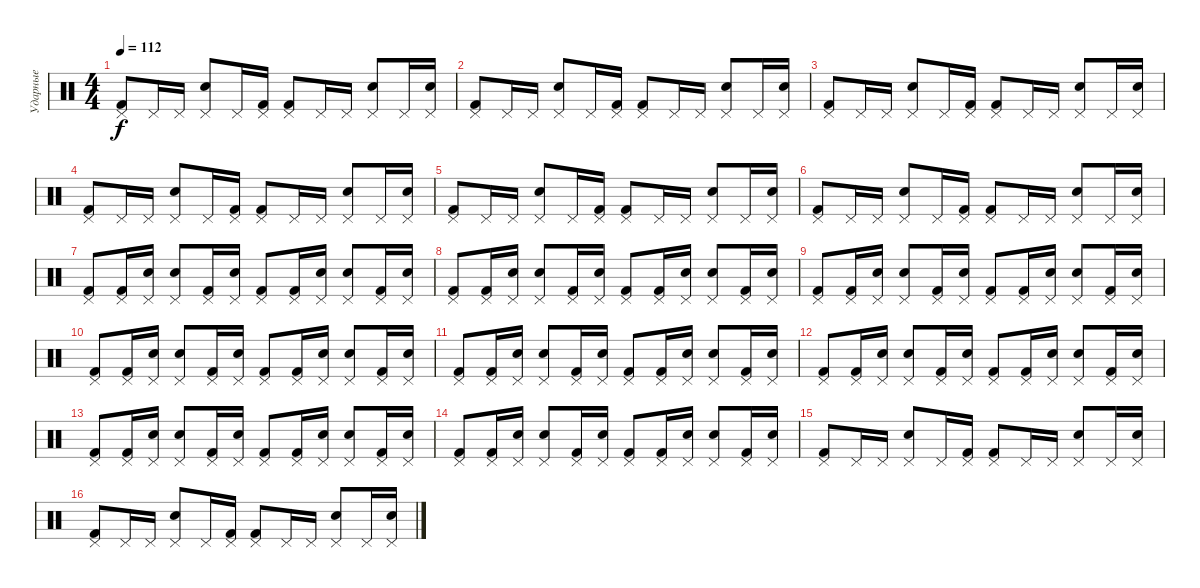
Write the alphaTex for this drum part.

\track ("Ударные" "Ударные") {instrument percussion}
\staff {score}
\articulation defaults
\ts (4 4)
\tempo 112
\clef neutral
\ks c
("Kick (hit) 2" "Pedal Hi-Hat (hit)").8{dy f} "Pedal Hi-Hat (hit)".16 "Pedal Hi-Hat (hit)".16 ("Pedal Hi-Hat (hit)" "Snare (hit) 2").8 "Pedal Hi-Hat (hit)".16 ("Pedal Hi-Hat (hit)" "Kick (hit) 2").16 ("Kick (hit) 2" "Pedal Hi-Hat (hit)").8 "Pedal Hi-Hat (hit)".16 "Pedal Hi-Hat (hit)".16 ("Snare (hit) 2" "Pedal Hi-Hat (hit)").8 "Pedal Hi-Hat (hit)".16 ("Pedal Hi-Hat (hit)" "Snare (hit) 2").16 |
("Kick (hit) 2" "Pedal Hi-Hat (hit)").8 "Pedal Hi-Hat (hit)".16 "Pedal Hi-Hat (hit)".16 ("Pedal Hi-Hat (hit)" "Snare (hit) 2").8 "Pedal Hi-Hat (hit)".16 ("Pedal Hi-Hat (hit)" "Kick (hit) 2").16 ("Kick (hit) 2" "Pedal Hi-Hat (hit)").8 "Pedal Hi-Hat (hit)".16 "Pedal Hi-Hat (hit)".16 ("Snare (hit) 2" "Pedal Hi-Hat (hit)").8 "Pedal Hi-Hat (hit)".16 ("Pedal Hi-Hat (hit)" "Snare (hit) 2").16 |
("Kick (hit) 2" "Pedal Hi-Hat (hit)").8 "Pedal Hi-Hat (hit)".16 "Pedal Hi-Hat (hit)".16 ("Pedal Hi-Hat (hit)" "Snare (hit) 2").8 "Pedal Hi-Hat (hit)".16 ("Pedal Hi-Hat (hit)" "Kick (hit) 2").16 ("Kick (hit) 2" "Pedal Hi-Hat (hit)").8 "Pedal Hi-Hat (hit)".16 "Pedal Hi-Hat (hit)".16 ("Snare (hit) 2" "Pedal Hi-Hat (hit)").8 "Pedal Hi-Hat (hit)".16 ("Pedal Hi-Hat (hit)" "Snare (hit) 2").16 |
("Kick (hit) 2" "Pedal Hi-Hat (hit)").8 "Pedal Hi-Hat (hit)".16 "Pedal Hi-Hat (hit)".16 ("Pedal Hi-Hat (hit)" "Snare (hit) 2").8 "Pedal Hi-Hat (hit)".16 ("Pedal Hi-Hat (hit)" "Kick (hit) 2").16 ("Kick (hit) 2" "Pedal Hi-Hat (hit)").8 "Pedal Hi-Hat (hit)".16 "Pedal Hi-Hat (hit)".16 ("Snare (hit) 2" "Pedal Hi-Hat (hit)").8 "Pedal Hi-Hat (hit)".16 ("Pedal Hi-Hat (hit)" "Snare (hit) 2").16 |
("Kick (hit) 2" "Pedal Hi-Hat (hit)").8 "Pedal Hi-Hat (hit)".16 "Pedal Hi-Hat (hit)".16 ("Pedal Hi-Hat (hit)" "Snare (hit) 2").8 "Pedal Hi-Hat (hit)".16 ("Pedal Hi-Hat (hit)" "Kick (hit) 2").16 ("Kick (hit) 2" "Pedal Hi-Hat (hit)").8 "Pedal Hi-Hat (hit)".16 "Pedal Hi-Hat (hit)".16 ("Snare (hit) 2" "Pedal Hi-Hat (hit)").8 "Pedal Hi-Hat (hit)".16 ("Pedal Hi-Hat (hit)" "Snare (hit) 2").16 |
("Kick (hit) 2" "Pedal Hi-Hat (hit)").8 "Pedal Hi-Hat (hit)".16 "Pedal Hi-Hat (hit)".16 ("Pedal Hi-Hat (hit)" "Snare (hit) 2").8 "Pedal Hi-Hat (hit)".16 ("Pedal Hi-Hat (hit)" "Kick (hit) 2").16 ("Kick (hit) 2" "Pedal Hi-Hat (hit)").8 "Pedal Hi-Hat (hit)".16 "Pedal Hi-Hat (hit)".16 ("Snare (hit) 2" "Pedal Hi-Hat (hit)").8 "Pedal Hi-Hat (hit)".16 ("Pedal Hi-Hat (hit)" "Snare (hit) 2").16 |
("Kick (hit) 2" "Pedal Hi-Hat (hit)").8 ("Kick (hit) 2" "Pedal Hi-Hat (hit)").16 ("Snare (hit) 2" "Pedal Hi-Hat (hit)").16 ("Snare (hit) 2" "Pedal Hi-Hat (hit)").8 ("Kick (hit) 2" "Pedal Hi-Hat (hit)").16 ("Snare (hit) 2" "Pedal Hi-Hat (hit)").16 ("Kick (hit) 2" "Pedal Hi-Hat (hit)").8 ("Kick (hit) 2" "Pedal Hi-Hat (hit)").16 ("Snare (hit) 2" "Pedal Hi-Hat (hit)").16 ("Snare (hit) 2" "Pedal Hi-Hat (hit)").8 ("Kick (hit) 2" "Pedal Hi-Hat (hit)").16 ("Snare (hit) 2" "Pedal Hi-Hat (hit)").16 |
("Kick (hit) 2" "Pedal Hi-Hat (hit)").8 ("Kick (hit) 2" "Pedal Hi-Hat (hit)").16 ("Snare (hit) 2" "Pedal Hi-Hat (hit)").16 ("Snare (hit) 2" "Pedal Hi-Hat (hit)").8 ("Kick (hit) 2" "Pedal Hi-Hat (hit)").16 ("Snare (hit) 2" "Pedal Hi-Hat (hit)").16 ("Kick (hit) 2" "Pedal Hi-Hat (hit)").8 ("Kick (hit) 2" "Pedal Hi-Hat (hit)").16 ("Snare (hit) 2" "Pedal Hi-Hat (hit)").16 ("Snare (hit) 2" "Pedal Hi-Hat (hit)").8 ("Kick (hit) 2" "Pedal Hi-Hat (hit)").16 ("Snare (hit) 2" "Pedal Hi-Hat (hit)").16 |
("Kick (hit) 2" "Pedal Hi-Hat (hit)").8 ("Kick (hit) 2" "Pedal Hi-Hat (hit)").16 ("Snare (hit) 2" "Pedal Hi-Hat (hit)").16 ("Snare (hit) 2" "Pedal Hi-Hat (hit)").8 ("Kick (hit) 2" "Pedal Hi-Hat (hit)").16 ("Snare (hit) 2" "Pedal Hi-Hat (hit)").16 ("Kick (hit) 2" "Pedal Hi-Hat (hit)").8 ("Kick (hit) 2" "Pedal Hi-Hat (hit)").16 ("Snare (hit) 2" "Pedal Hi-Hat (hit)").16 ("Snare (hit) 2" "Pedal Hi-Hat (hit)").8 ("Kick (hit) 2" "Pedal Hi-Hat (hit)").16 ("Snare (hit) 2" "Pedal Hi-Hat (hit)").16 |
("Kick (hit) 2" "Pedal Hi-Hat (hit)").8 ("Kick (hit) 2" "Pedal Hi-Hat (hit)").16 ("Snare (hit) 2" "Pedal Hi-Hat (hit)").16 ("Snare (hit) 2" "Pedal Hi-Hat (hit)").8 ("Kick (hit) 2" "Pedal Hi-Hat (hit)").16 ("Snare (hit) 2" "Pedal Hi-Hat (hit)").16 ("Kick (hit) 2" "Pedal Hi-Hat (hit)").8 ("Kick (hit) 2" "Pedal Hi-Hat (hit)").16 ("Snare (hit) 2" "Pedal Hi-Hat (hit)").16 ("Snare (hit) 2" "Pedal Hi-Hat (hit)").8 ("Kick (hit) 2" "Pedal Hi-Hat (hit)").16 ("Snare (hit) 2" "Pedal Hi-Hat (hit)").16 |
("Kick (hit) 2" "Pedal Hi-Hat (hit)").8 ("Kick (hit) 2" "Pedal Hi-Hat (hit)").16 ("Snare (hit) 2" "Pedal Hi-Hat (hit)").16 ("Snare (hit) 2" "Pedal Hi-Hat (hit)").8 ("Kick (hit) 2" "Pedal Hi-Hat (hit)").16 ("Snare (hit) 2" "Pedal Hi-Hat (hit)").16 ("Kick (hit) 2" "Pedal Hi-Hat (hit)").8 ("Kick (hit) 2" "Pedal Hi-Hat (hit)").16 ("Snare (hit) 2" "Pedal Hi-Hat (hit)").16 ("Snare (hit) 2" "Pedal Hi-Hat (hit)").8 ("Kick (hit) 2" "Pedal Hi-Hat (hit)").16 ("Snare (hit) 2" "Pedal Hi-Hat (hit)").16 |
("Kick (hit) 2" "Pedal Hi-Hat (hit)").8 ("Kick (hit) 2" "Pedal Hi-Hat (hit)").16 ("Snare (hit) 2" "Pedal Hi-Hat (hit)").16 ("Snare (hit) 2" "Pedal Hi-Hat (hit)").8 ("Kick (hit) 2" "Pedal Hi-Hat (hit)").16 ("Snare (hit) 2" "Pedal Hi-Hat (hit)").16 ("Kick (hit) 2" "Pedal Hi-Hat (hit)").8 ("Kick (hit) 2" "Pedal Hi-Hat (hit)").16 ("Snare (hit) 2" "Pedal Hi-Hat (hit)").16 ("Snare (hit) 2" "Pedal Hi-Hat (hit)").8 ("Kick (hit) 2" "Pedal Hi-Hat (hit)").16 ("Snare (hit) 2" "Pedal Hi-Hat (hit)").16 |
("Kick (hit) 2" "Pedal Hi-Hat (hit)").8 ("Kick (hit) 2" "Pedal Hi-Hat (hit)").16 ("Snare (hit) 2" "Pedal Hi-Hat (hit)").16 ("Snare (hit) 2" "Pedal Hi-Hat (hit)").8 ("Kick (hit) 2" "Pedal Hi-Hat (hit)").16 ("Snare (hit) 2" "Pedal Hi-Hat (hit)").16 ("Kick (hit) 2" "Pedal Hi-Hat (hit)").8 ("Kick (hit) 2" "Pedal Hi-Hat (hit)").16 ("Snare (hit) 2" "Pedal Hi-Hat (hit)").16 ("Snare (hit) 2" "Pedal Hi-Hat (hit)").8 ("Kick (hit) 2" "Pedal Hi-Hat (hit)").16 ("Snare (hit) 2" "Pedal Hi-Hat (hit)").16 |
("Kick (hit) 2" "Pedal Hi-Hat (hit)").8 ("Kick (hit) 2" "Pedal Hi-Hat (hit)").16 ("Snare (hit) 2" "Pedal Hi-Hat (hit)").16 ("Snare (hit) 2" "Pedal Hi-Hat (hit)").8 ("Kick (hit) 2" "Pedal Hi-Hat (hit)").16 ("Snare (hit) 2" "Pedal Hi-Hat (hit)").16 ("Kick (hit) 2" "Pedal Hi-Hat (hit)").8 ("Kick (hit) 2" "Pedal Hi-Hat (hit)").16 ("Snare (hit) 2" "Pedal Hi-Hat (hit)").16 ("Snare (hit) 2" "Pedal Hi-Hat (hit)").8 ("Kick (hit) 2" "Pedal Hi-Hat (hit)").16 ("Snare (hit) 2" "Pedal Hi-Hat (hit)").16 |
("Kick (hit) 2" "Pedal Hi-Hat (hit)").8 "Pedal Hi-Hat (hit)".16 "Pedal Hi-Hat (hit)".16 ("Pedal Hi-Hat (hit)" "Snare (hit) 2").8 "Pedal Hi-Hat (hit)".16 ("Pedal Hi-Hat (hit)" "Kick (hit) 2").16 ("Kick (hit) 2" "Pedal Hi-Hat (hit)").8 "Pedal Hi-Hat (hit)".16 "Pedal Hi-Hat (hit)".16 ("Snare (hit) 2" "Pedal Hi-Hat (hit)").8 "Pedal Hi-Hat (hit)".16 ("Pedal Hi-Hat (hit)" "Snare (hit) 2").16 |
("Kick (hit) 2" "Pedal Hi-Hat (hit)").8 "Pedal Hi-Hat (hit)".16 "Pedal Hi-Hat (hit)".16 ("Pedal Hi-Hat (hit)" "Snare (hit) 2").8 "Pedal Hi-Hat (hit)".16 ("Pedal Hi-Hat (hit)" "Kick (hit) 2").16 ("Kick (hit) 2" "Pedal Hi-Hat (hit)").8 "Pedal Hi-Hat (hit)".16 "Pedal Hi-Hat (hit)".16 ("Snare (hit) 2" "Pedal Hi-Hat (hit)").8 "Pedal Hi-Hat (hit)".16 ("Pedal Hi-Hat (hit)" "Snare (hit) 2").16
